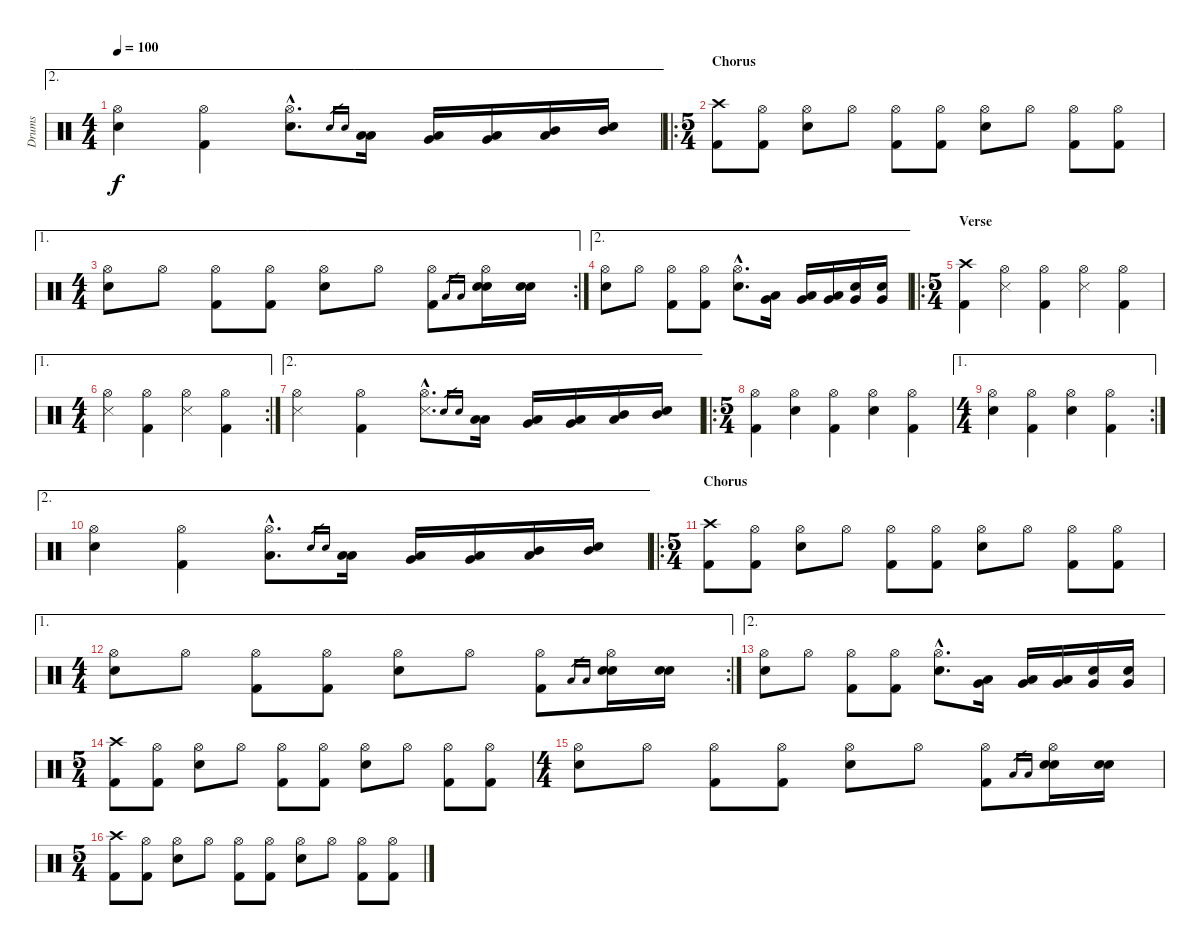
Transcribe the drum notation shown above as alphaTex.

\track ("Drums" "Drums") {instrument percussion}
\staff {score}
\articulation defaults
\ae 2
\ts (4 4)
\tempo 100
\clef neutral
\ks c
("Hi-Hat (open)" "Electric Snare (hit)").4{dy f} ("Hi-Hat (open)" "Kick (hit) 2").4 ("Hi-Hat (open)"{hac} "Electric Snare (hit)"{hac}).8{d} "Electric Snare (hit)".16{gr} "Electric Snare (hit)".16{gr} ("Low Floor Tom (hit)" "Low Floor Tom (hit)").16 ("Very Low Tom (hit)" "Low Floor Tom (hit)").16 ("Low Tom (hit)" "Very Low Tom (hit)").16 ("Mid Tom (hit)" "Low Tom (hit)").16 ("Electric Snare (hit)" "Mid Tom (hit)").16 |
\ro
\ts (5 4)
\section ("" "Chorus")
("Crash high (hit)" "Kick (hit) 2").8 ("Hi-Hat (open)" "Kick (hit) 2").8 ("Hi-Hat (open)" "Electric Snare (hit)").8 "Hi-Hat (open)".8 ("Hi-Hat (open)" "Kick (hit) 2").8 ("Hi-Hat (open)" "Kick (hit) 2").8 ("Hi-Hat (open)" "Electric Snare (hit)").8 "Hi-Hat (open)".8 ("Hi-Hat (open)" "Kick (hit) 2").8 ("Hi-Hat (open)" "Kick (hit) 2").8 |
\ae 1
\rc 2
\ts (4 4)
("Hi-Hat (open)" "Electric Snare (hit)").8 "Hi-Hat (open)".8 ("Hi-Hat (open)" "Kick (hit) 2").8 ("Hi-Hat (open)" "Kick (hit) 2").8 ("Hi-Hat (open)" "Electric Snare (hit)").8 "Hi-Hat (open)".8 ("Hi-Hat (open)" "Kick (hit) 2").8 "Low Floor Tom (hit)".16{gr} "Low Floor Tom (hit)".16{gr} ("Hi-Hat (open)" "Electric Snare (hit)" "Electric Snare (hit)").16 ("Electric Snare (hit)" "Electric Snare (hit)").16 |
\ae 2
("Hi-Hat (open)" "Electric Snare (hit)").8 "Hi-Hat (open)".8 ("Hi-Hat (open)" "Kick (hit) 2").8 ("Hi-Hat (open)" "Kick (hit) 2").8 ("Hi-Hat (open)"{hac} "Electric Snare (hit)"{hac}).8{d} ("Very Low Tom (hit)" "Low Floor Tom (hit)").16 ("Very Low Tom (hit)" "Low Floor Tom (hit)").16 ("Low Tom (hit)" "Very Low Tom (hit)").16 ("Very Low Tom (hit)" "Electric Snare (hit)").16 ("Very Low Tom (hit)" "Electric Snare (hit)").16 |
\ro
\ts (5 4)
\section ("" "Verse ")
("Crash high (hit)" "Kick (hit) 2").4 ("Hi-Hat (open)" "Snare (side stick) 3").4 ("Hi-Hat (open)" "Kick (hit) 2").4 ("Hi-Hat (open)" "Snare (side stick) 3").4 ("Hi-Hat (open)" "Kick (hit) 2").4 |
\ae 1
\rc 2
\ts (4 4)
("Hi-Hat (open)" "Snare (side stick) 3").4 ("Hi-Hat (open)" "Kick (hit) 2").4 ("Hi-Hat (open)" "Snare (side stick) 3").4 ("Hi-Hat (open)" "Kick (hit) 2").4 |
\ae 2
("Hi-Hat (open)" "Snare (side stick) 3").4 ("Hi-Hat (open)" "Kick (hit) 2").4 ("Hi-Hat (open)"{hac} "Snare (side stick) 3"{hac}).8{d} "Electric Snare (hit)".16{gr} "Electric Snare (hit)".16{gr} ("Low Floor Tom (hit)" "Low Floor Tom (hit)").16 ("Very Low Tom (hit)" "Low Floor Tom (hit)").16 ("Low Tom (hit)" "Very Low Tom (hit)").16 ("Mid Tom (hit)" "Low Tom (hit)").16 ("Electric Snare (hit)" "Mid Tom (hit)").16 |
\ro
\ts (5 4)
("Hi-Hat (open)" "Kick (hit) 2").4 ("Hi-Hat (open)" "Electric Snare (hit)").4 ("Hi-Hat (open)" "Kick (hit) 2").4 ("Hi-Hat (open)" "Electric Snare (hit)").4 ("Hi-Hat (open)" "Kick (hit) 2").4 |
\ae 1
\rc 2
\ts (4 4)
("Hi-Hat (open)" "Electric Snare (hit)").4 ("Hi-Hat (open)" "Kick (hit) 2").4 ("Hi-Hat (open)" "Electric Snare (hit)").4 ("Hi-Hat (open)" "Kick (hit) 2").4 |
\ae 2
("Hi-Hat (open)" "Electric Snare (hit)").4 ("Hi-Hat (open)" "Kick (hit) 2").4 ("Hi-Hat (open)"{hac} "Low Floor Tom (hit)"{hac}).8{d} "Electric Snare (hit)".16{gr} "Electric Snare (hit)".16{gr} ("Low Floor Tom (hit)" "Low Floor Tom (hit)").16 ("Very Low Tom (hit)" "Low Floor Tom (hit)").16 ("Low Tom (hit)" "Very Low Tom (hit)").16 ("Mid Tom (hit)" "Low Tom (hit)").16 ("Electric Snare (hit)" "Mid Tom (hit)").16 |
\ro
\ts (5 4)
\section ("" "Chorus")
("Crash high (hit)" "Kick (hit) 2").8 ("Hi-Hat (open)" "Kick (hit) 2").8 ("Hi-Hat (open)" "Electric Snare (hit)").8 "Hi-Hat (open)".8 ("Hi-Hat (open)" "Kick (hit) 2").8 ("Hi-Hat (open)" "Kick (hit) 2").8 ("Hi-Hat (open)" "Electric Snare (hit)").8 "Hi-Hat (open)".8 ("Hi-Hat (open)" "Kick (hit) 2").8 ("Hi-Hat (open)" "Kick (hit) 2").8 |
\ae 1
\rc 2
\ts (4 4)
("Hi-Hat (open)" "Electric Snare (hit)").8 "Hi-Hat (open)".8 ("Hi-Hat (open)" "Kick (hit) 2").8 ("Hi-Hat (open)" "Kick (hit) 2").8 ("Hi-Hat (open)" "Electric Snare (hit)").8 "Hi-Hat (open)".8 ("Hi-Hat (open)" "Kick (hit) 2").8 "Low Floor Tom (hit)".16{gr} "Low Floor Tom (hit)".16{gr} ("Hi-Hat (open)" "Electric Snare (hit)" "Electric Snare (hit)").16 ("Electric Snare (hit)" "Electric Snare (hit)").16 |
\ae 2
("Hi-Hat (open)" "Electric Snare (hit)").8 "Hi-Hat (open)".8 ("Hi-Hat (open)" "Kick (hit) 2").8 ("Hi-Hat (open)" "Kick (hit) 2").8 ("Hi-Hat (open)"{hac} "Electric Snare (hit)"{hac}).8{d} ("Very Low Tom (hit)" "Low Floor Tom (hit)").16 ("Very Low Tom (hit)" "Low Floor Tom (hit)").16 ("Low Tom (hit)" "Very Low Tom (hit)").16 ("Very Low Tom (hit)" "Electric Snare (hit)").16 ("Very Low Tom (hit)" "Electric Snare (hit)").16 |
\ts (5 4)
("Crash high (hit)" "Kick (hit) 2").8{volume 12} ("Hi-Hat (open)" "Kick (hit) 2").8 ("Hi-Hat (open)" "Electric Snare (hit)").8 "Hi-Hat (open)".8 ("Hi-Hat (open)" "Kick (hit) 2").8 ("Hi-Hat (open)" "Kick (hit) 2").8 ("Hi-Hat (open)" "Electric Snare (hit)").8 "Hi-Hat (open)".8 ("Hi-Hat (open)" "Kick (hit) 2").8 ("Hi-Hat (open)" "Kick (hit) 2").8 |
\ts (4 4)
("Hi-Hat (open)" "Electric Snare (hit)").8 "Hi-Hat (open)".8 ("Hi-Hat (open)" "Kick (hit) 2").8 ("Hi-Hat (open)" "Kick (hit) 2").8 ("Hi-Hat (open)" "Electric Snare (hit)").8 "Hi-Hat (open)".8 ("Hi-Hat (open)" "Kick (hit) 2").8 "Low Floor Tom (hit)".16{gr} "Low Floor Tom (hit)".16{gr} ("Hi-Hat (open)" "Electric Snare (hit)" "Electric Snare (hit)").16 ("Electric Snare (hit)" "Electric Snare (hit)").16 |
\ts (5 4)
("Crash high (hit)" "Kick (hit) 2").8{volume 8} ("Hi-Hat (open)" "Kick (hit) 2").8 ("Hi-Hat (open)" "Electric Snare (hit)").8 "Hi-Hat (open)".8 ("Hi-Hat (open)" "Kick (hit) 2").8 ("Hi-Hat (open)" "Kick (hit) 2").8 ("Hi-Hat (open)" "Electric Snare (hit)").8 "Hi-Hat (open)".8 ("Hi-Hat (open)" "Kick (hit) 2").8 ("Hi-Hat (open)" "Kick (hit) 2").8
